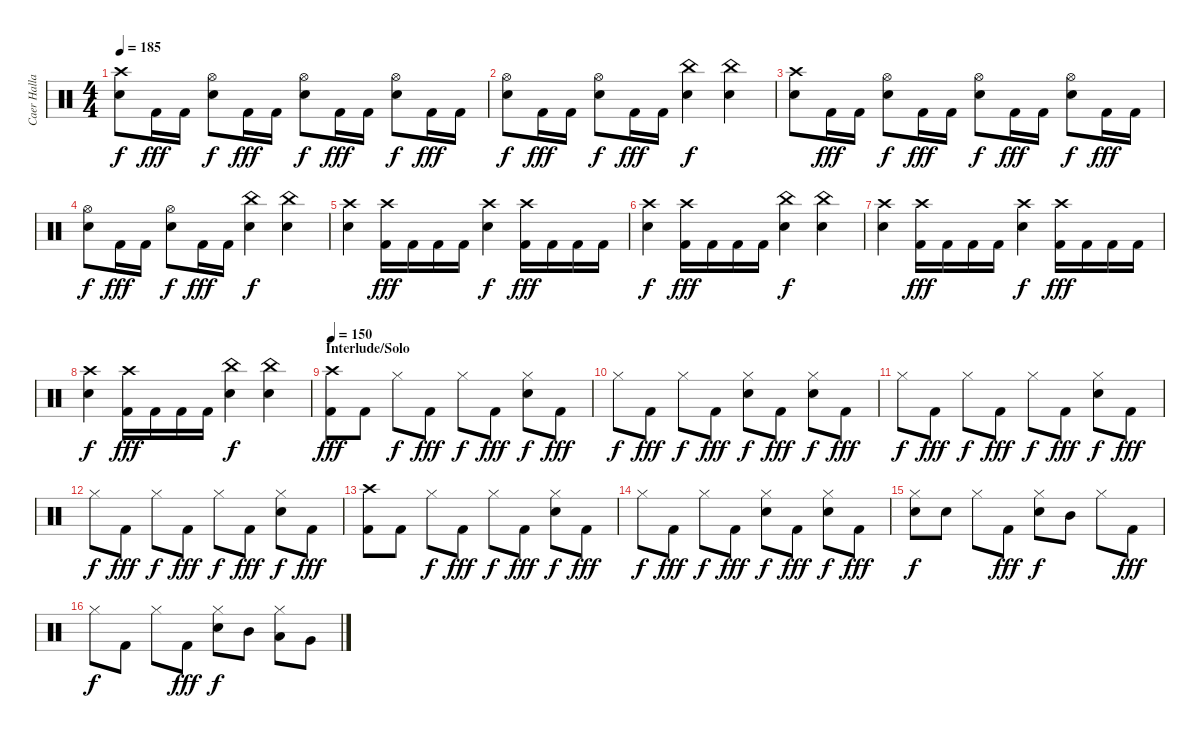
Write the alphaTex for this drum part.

\track ("Caer Hallam Generis" "Caer Halla") {instrument percussion}
\staff {score}
\articulation defaults
\ts (4 4)
\tempo 185
\clef neutral
\ks c
("Crash high (hit)" "Snare (hit) 2").8{dy f} "Kick (hit) 2".16{dy fff} "Kick (hit) 2".16 ("Hi-Hat (open)" "Snare (hit) 2").8{dy f} "Kick (hit) 2".16{dy fff} "Kick (hit) 2".16 ("Hi-Hat (open)" "Snare (hit) 2").8{dy f} "Kick (hit) 2".16{dy fff} "Kick (hit) 2".16 ("Hi-Hat (open)" "Snare (hit) 2").8{dy f} "Kick (hit) 2".16{dy fff} "Kick (hit) 2".16 |
("Hi-Hat (open)" "Snare (hit) 2").8{dy f} "Kick (hit) 2".16{dy fff} "Kick (hit) 2".16 ("Hi-Hat (open)" "Snare (hit) 2").8{dy f} "Kick (hit) 2".16{dy fff} "Kick (hit) 2".16 ("China (hit)" "Snare (hit) 2").4{dy f} ("China (hit)" "Snare (hit) 2").4 |
("Crash high (hit)" "Snare (hit) 2").8 "Kick (hit) 2".16{dy fff} "Kick (hit) 2".16 ("Hi-Hat (open)" "Snare (hit) 2").8{dy f} "Kick (hit) 2".16{dy fff} "Kick (hit) 2".16 ("Hi-Hat (open)" "Snare (hit) 2").8{dy f} "Kick (hit) 2".16{dy fff} "Kick (hit) 2".16 ("Hi-Hat (open)" "Snare (hit) 2").8{dy f} "Kick (hit) 2".16{dy fff} "Kick (hit) 2".16 |
("Hi-Hat (open)" "Snare (hit) 2").8{dy f} "Kick (hit) 2".16{dy fff} "Kick (hit) 2".16 ("Hi-Hat (open)" "Snare (hit) 2").8{dy f} "Kick (hit) 2".16{dy fff} "Kick (hit) 2".16 ("China (hit)" "Snare (hit) 2").4{dy f} ("China (hit)" "Snare (hit) 2").4 |
("Crash high (hit)" "Snare (hit) 2").4 ("Crash high (hit)" "Kick (hit) 2").16{dy fff} "Kick (hit) 2".16 "Kick (hit) 2".16 "Kick (hit) 2".16 ("Crash high (hit)" "Snare (hit) 2").4{dy f} ("Crash high (hit)" "Kick (hit) 2").16{dy fff} "Kick (hit) 2".16 "Kick (hit) 2".16 "Kick (hit) 2".16 |
("Crash high (hit)" "Snare (hit) 2").4{dy f} ("Crash high (hit)" "Kick (hit) 2").16{dy fff} "Kick (hit) 2".16 "Kick (hit) 2".16 "Kick (hit) 2".16 ("China (hit)" "Snare (hit) 2").4{dy f} ("China (hit)" "Snare (hit) 2").4 |
("Crash high (hit)" "Snare (hit) 2").4 ("Crash high (hit)" "Kick (hit) 2").16{dy fff} "Kick (hit) 2".16 "Kick (hit) 2".16 "Kick (hit) 2".16 ("Crash high (hit)" "Snare (hit) 2").4{dy f} ("Crash high (hit)" "Kick (hit) 2").16{dy fff} "Kick (hit) 2".16 "Kick (hit) 2".16 "Kick (hit) 2".16 |
("Crash high (hit)" "Snare (hit) 2").4{dy f} ("Crash high (hit)" "Kick (hit) 2").16{dy fff} "Kick (hit) 2".16 "Kick (hit) 2".16 "Kick (hit) 2".16 ("China (hit)" "Snare (hit) 2").4{dy f} ("China (hit)" "Snare (hit) 2").4 |
\section ("" "Interlude/Solo")
\tempo 150
("Crash high (hit)" "Kick (hit) 2").8{dy fff} "Kick (hit) 2".8 "Hi-Hat (closed)".8{dy f} "Kick (hit) 2".8{dy fff} "Hi-Hat (closed)".8{dy f} "Kick (hit) 2".8{dy fff} ("Hi-Hat (closed)" "Snare (hit) 2").8{dy f} "Kick (hit) 2".8{dy fff} |
"Hi-Hat (closed)".8{dy f} "Kick (hit) 2".8{dy fff} "Hi-Hat (closed)".8{dy f} "Kick (hit) 2".8{dy fff} ("Hi-Hat (closed)" "Snare (hit) 2").8{dy f} "Kick (hit) 2".8{dy fff} ("Hi-Hat (closed)" "Snare (hit) 2").8{dy f} "Kick (hit) 2".8{dy fff} |
"Hi-Hat (closed)".8{dy f} "Kick (hit) 2".8{dy fff} "Hi-Hat (closed)".8{dy f} "Kick (hit) 2".8{dy fff} "Hi-Hat (closed)".8{dy f} "Kick (hit) 2".8{dy fff} ("Hi-Hat (closed)" "Snare (hit) 2").8{dy f} "Kick (hit) 2".8{dy fff} |
"Hi-Hat (closed)".8{dy f} "Kick (hit) 2".8{dy fff} "Hi-Hat (closed)".8{dy f} "Kick (hit) 2".8{dy fff} "Hi-Hat (closed)".8{dy f} "Kick (hit) 2".8{dy fff} ("Hi-Hat (closed)" "Snare (hit) 2").8{dy f} "Kick (hit) 2".8{dy fff} |
("Crash high (hit)" "Kick (hit) 2").8 "Kick (hit) 2".8 "Hi-Hat (closed)".8{dy f} "Kick (hit) 2".8{dy fff} "Hi-Hat (closed)".8{dy f} "Kick (hit) 2".8{dy fff} ("Hi-Hat (closed)" "Snare (hit) 2").8{dy f} "Kick (hit) 2".8{dy fff} |
"Hi-Hat (closed)".8{dy f} "Kick (hit) 2".8{dy fff} "Hi-Hat (closed)".8{dy f} "Kick (hit) 2".8{dy fff} ("Hi-Hat (closed)" "Snare (hit) 2").8{dy f} "Kick (hit) 2".8{dy fff} ("Hi-Hat (closed)" "Snare (hit) 2").8{dy f} "Kick (hit) 2".8{dy fff} |
("Hi-Hat (closed)" "Snare (hit) 2").8{dy f} "Snare (hit) 2".8 "Hi-Hat (closed)".8 "Kick (hit) 2".8{dy fff} ("Hi-Hat (closed)" "Snare (hit) 2").8{dy f} "Mid Tom (hit)".8 "Hi-Hat (closed)".8 "Kick (hit) 2".8{dy fff} |
"Hi-Hat (closed)".8{dy f} "Kick (hit) 2".8 "Hi-Hat (closed)".8 "Kick (hit) 2".8{dy fff} ("Hi-Hat (closed)" "Snare (hit) 2").8{dy f} "Mid Tom (hit)".8 ("Hi-Hat (closed)" "Low Tom (hit)").8 "Very Low Tom (hit)".8
